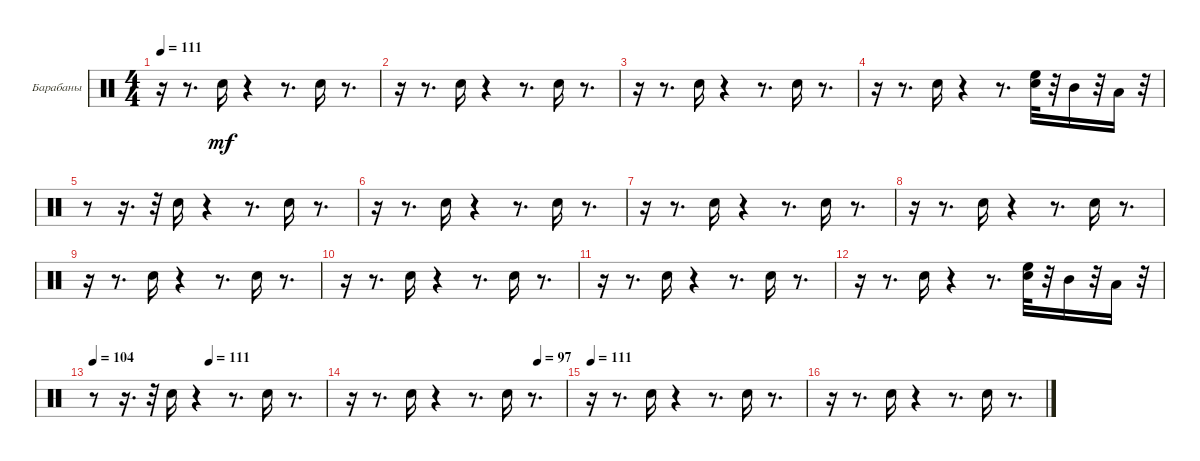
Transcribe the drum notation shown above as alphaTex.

\bracketExtendMode groupsimilarinstruments
\firstSystemTrackNameOrientation horizontal
\otherSystemsTrackNameOrientation horizontal
\track ("Барабаны" "Барабаны") {instrument percussion}
\staff {score}
\articulation defaults
\ts (4 4)
\tempo 111
\clef neutral
\ks c
r.16{dy mf} r.8{d} "Snare (hit) 2".16 r.4 r.8{d} "Snare (hit) 2".16 r.8{d} |
r.16 r.8{d} "Snare (hit) 2".16 r.4 r.8{d} "Snare (hit) 2".16 r.8{d} |
r.16 r.8{d} "Snare (hit) 2".16 r.4 r.8{d} "Snare (hit) 2".16 r.8{d} |
r.16 r.8{d} "Snare (hit) 2".16 r.4 r.8{d} ("Snare (hit) 2" "High Floor Tom (hit)").32 r.32 "Mid Tom (hit)".16 r.32 "Low Tom (hit)".16 r.32 |
r.8 r.16{d} r.32 "Snare (hit) 2".16 r.4 r.8{d} "Snare (hit) 2".16 r.8{d} |
r.16 r.8{d} "Snare (hit) 2".16 r.4 r.8{d} "Snare (hit) 2".16 r.8{d} |
r.16 r.8{d} "Snare (hit) 2".16 r.4 r.8{d} "Snare (hit) 2".16 r.8{d} |
r.16 r.8{d} "Snare (hit) 2".16 r.4 r.8{d} "Snare (hit) 2".16 r.8{d} |
r.16 r.8{d} "Snare (hit) 2".16 r.4 r.8{d} "Snare (hit) 2".16 r.8{d} |
r.16 r.8{d} "Snare (hit) 2".16 r.4 r.8{d} "Snare (hit) 2".16 r.8{d} |
r.16 r.8{d} "Snare (hit) 2".16 r.4 r.8{d} "Snare (hit) 2".16 r.8{d} |
r.16 r.8{d} "Snare (hit) 2".16 r.4 r.8{d} ("Snare (hit) 2" "High Floor Tom (hit)").32 r.32 "Mid Tom (hit)".16 r.32 "Low Tom (hit)".16 r.32 |
\tempo (104 0.0015625)
\tempo (111 0.5)
r.8 r.16{d} r.32 "Snare (hit) 2".16 r.4 r.8{d} "Snare (hit) 2".16 r.8{d} |
\tempo (97 0.869792)
r.16 r.8{d} "Snare (hit) 2".16 r.4 r.8{d} "Snare (hit) 2".16 r.8{d} |
\tempo 111
r.16 r.8{d} "Snare (hit) 2".16 r.4 r.8{d} "Snare (hit) 2".16 r.8{d} |
r.16 r.8{d} "Snare (hit) 2".16 r.4 r.8{d} "Snare (hit) 2".16 r.8{d}
